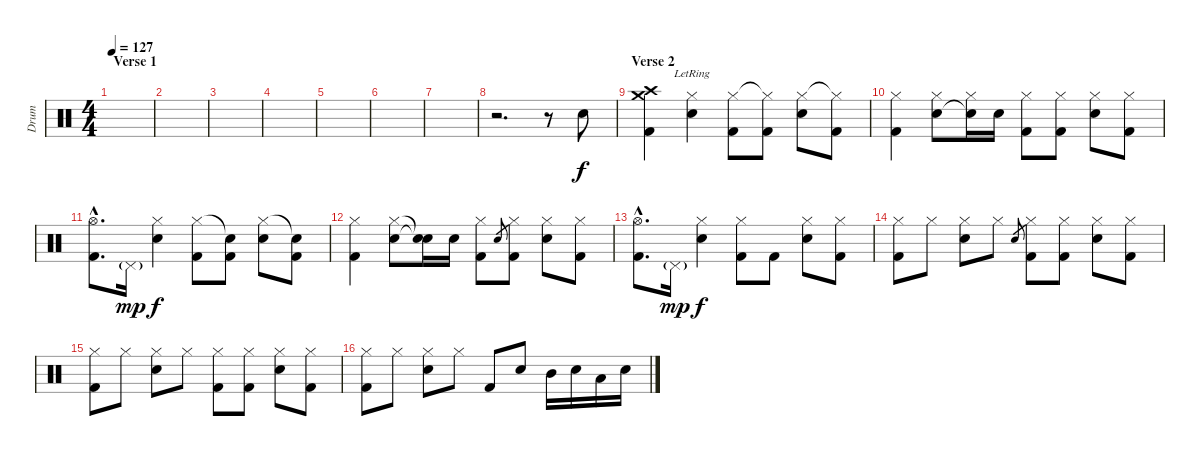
\track ("Drum" "Drum") {instrument percussion}
\staff {score}
\articulation defaults
\ts (4 4)
\section ("" "Verse 1")
\tempo 127
\clef neutral
\ks c
|
|
|
|
|
|
|
r.2{d} r.8 "Electric Snare (hit)".8 |
\section ("" "Verse 2")
("Kick (hit) 2" "Crash high (hit)" "Crash medium (hit)").4 ("Hi-Hat (closed)"{lr} "Electric Snare (hit)").4 ("Hi-Hat (closed)" "Kick (hit) 2").8 ("Hi-Hat (closed)"{t} "Kick (hit) 2").8 ("Hi-Hat (closed)" "Electric Snare (hit)").8 ("Hi-Hat (closed)"{t} "Kick (hit) 2").8 |
("Hi-Hat (closed)" "Kick (hit) 2").4 ("Hi-Hat (closed)" "Electric Snare (hit)").8 ("Hi-Hat (closed)" "Electric Snare (hit)"{t}).16 "Electric Snare (hit)".16 ("Hi-Hat (closed)" "Kick (hit) 2").8 ("Hi-Hat (closed)" "Kick (hit) 2").8 ("Hi-Hat (closed)" "Electric Snare (hit)").8 ("Hi-Hat (closed)" "Kick (hit) 2").8 |
("Hi-Hat (open)"{hac} "Kick (hit) 2"{hac}).8{d} "Pedal Hi-Hat (hit)"{g}.16{dy mp} ("Hi-Hat (closed)" "Electric Snare (hit)").4{dy f} ("Hi-Hat (closed)" "Kick (hit) 2").8 ("Snare (hit)"{t} "Kick (hit) 2").8 ("Hi-Hat (closed)" "Electric Snare (hit)").8 ("Snare (hit)"{t} "Kick (hit) 2").8 |
("Hi-Hat (closed)" "Kick (hit) 2").4 ("Hi-Hat (closed)" "Electric Snare (hit)").8 ("Snare (hit)"{t} "Electric Snare (hit)"{t}).16 "Electric Snare (hit)".16 ("Hi-Hat (closed)" "Kick (hit) 2").8 "Electric Snare (hit)".8{gr} ("Hi-Hat (closed)" "Kick (hit) 2").8 ("Hi-Hat (closed)" "Electric Snare (hit)").8 ("Hi-Hat (closed)" "Kick (hit) 2").8 |
("Hi-Hat (open)"{hac} "Kick (hit) 2"{hac}).8{d} "Pedal Hi-Hat (hit)"{g}.16{dy mp} ("Hi-Hat (closed)" "Electric Snare (hit)").4{dy f} ("Hi-Hat (closed)" "Kick (hit) 2").8 "Kick (hit) 2".8 ("Hi-Hat (closed)" "Electric Snare (hit)").8 ("Hi-Hat (closed)" "Kick (hit) 2").8 |
("Hi-Hat (closed)" "Kick (hit) 2").8 "Hi-Hat (closed)".8 ("Hi-Hat (closed)" "Electric Snare (hit)").8 "Hi-Hat (closed)".8 "Electric Snare (hit)".8{gr} ("Hi-Hat (closed)" "Kick (hit) 2").8 ("Hi-Hat (closed)" "Kick (hit) 2").8 ("Hi-Hat (closed)" "Electric Snare (hit)").8 ("Hi-Hat (closed)" "Kick (hit) 2").8 |
("Hi-Hat (closed)" "Kick (hit) 2").8 "Hi-Hat (closed)".8 ("Hi-Hat (closed)" "Electric Snare (hit)").8 "Hi-Hat (closed)".8 ("Hi-Hat (closed)" "Kick (hit) 2").8 ("Hi-Hat (closed)" "Kick (hit) 2").8 ("Hi-Hat (closed)" "Electric Snare (hit)").8 ("Hi-Hat (closed)" "Kick (hit) 2").8 |
("Hi-Hat (closed)" "Kick (hit) 2").8 "Hi-Hat (closed)".8 ("Hi-Hat (closed)" "Electric Snare (hit)").8 "Hi-Hat (closed)".8 "Kick (hit) 2".8 "Electric Snare (hit)".8 "Mid Tom (hit)".16 "Electric Snare (hit)".16 "Low Tom (hit)".16 "Electric Snare (hit)".16
